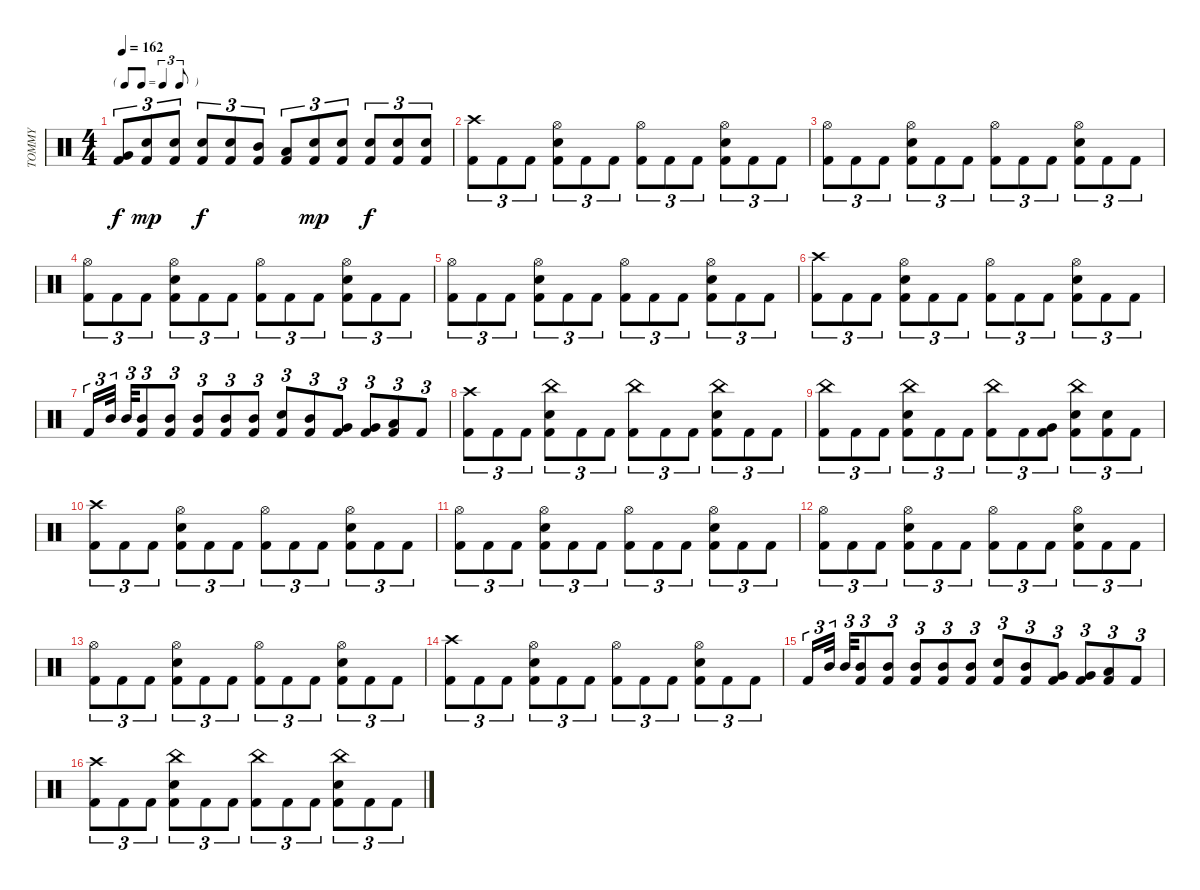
\track ("TOMMY" "TOMMY") {instrument percussion}
\staff {score}
\articulation defaults
\ts (4 4)
\tf triplet8th
\tempo 162
\clef neutral
\ks c
("Kick (hit) 2" "Very Low Tom (hit)").8{tu (3 2) dy f} ("Snare (hit) 2" "Kick (hit) 2").8{tu (3 2) dy mp} ("Snare (hit) 2" "Kick (hit) 2").8{tu (3 2)} ("Snare (hit) 2" "Kick (hit) 2").8{tu (3 2) dy f} ("Snare (hit) 2" "Kick (hit) 2").8{tu (3 2)} ("Kick (hit) 2" "Mid Tom (hit)").8{tu (3 2)} ("Kick (hit) 2" "Low Floor Tom (hit)").8{tu (3 2)} ("Snare (hit) 2" "Kick (hit) 2").8{tu (3 2) dy mp} ("Snare (hit) 2" "Kick (hit) 2").8{tu (3 2)} ("Snare (hit) 2" "Kick (hit) 2").8{tu (3 2) dy f} ("Snare (hit) 2" "Kick (hit) 2").8{tu (3 2)} ("Snare (hit) 2" "Kick (hit) 2").8{tu (3 2)} |
("Kick (hit) 2" "Crash high (hit)").8{tu (3 2)} "Kick (hit) 2".8{tu (3 2)} "Kick (hit) 2".8{tu (3 2)} ("Snare (hit) 2" "Kick (hit) 2" "Hi-Hat (open)").8{tu (3 2)} "Kick (hit) 2".8{tu (3 2)} "Kick (hit) 2".8{tu (3 2)} ("Kick (hit) 2" "Hi-Hat (open)").8{tu (3 2)} "Kick (hit) 2".8{tu (3 2)} "Kick (hit) 2".8{tu (3 2)} ("Snare (hit) 2" "Kick (hit) 2" "Hi-Hat (open)").8{tu (3 2)} "Kick (hit) 2".8{tu (3 2)} "Kick (hit) 2".8{tu (3 2)} |
("Kick (hit) 2" "Hi-Hat (open)").8{tu (3 2)} "Kick (hit) 2".8{tu (3 2)} "Kick (hit) 2".8{tu (3 2)} ("Snare (hit) 2" "Kick (hit) 2" "Hi-Hat (open)").8{tu (3 2)} "Kick (hit) 2".8{tu (3 2)} "Kick (hit) 2".8{tu (3 2)} ("Kick (hit) 2" "Hi-Hat (open)").8{tu (3 2)} "Kick (hit) 2".8{tu (3 2)} "Kick (hit) 2".8{tu (3 2)} ("Snare (hit) 2" "Kick (hit) 2" "Hi-Hat (open)").8{tu (3 2)} "Kick (hit) 2".8{tu (3 2)} "Kick (hit) 2".8{tu (3 2)} |
("Kick (hit) 2" "Hi-Hat (open)").8{tu (3 2)} "Kick (hit) 2".8{tu (3 2)} "Kick (hit) 2".8{tu (3 2)} ("Snare (hit) 2" "Kick (hit) 2" "Hi-Hat (open)").8{tu (3 2)} "Kick (hit) 2".8{tu (3 2)} "Kick (hit) 2".8{tu (3 2)} ("Kick (hit) 2" "Hi-Hat (open)").8{tu (3 2)} "Kick (hit) 2".8{tu (3 2)} "Kick (hit) 2".8{tu (3 2)} ("Snare (hit) 2" "Kick (hit) 2" "Hi-Hat (open)").8{tu (3 2)} "Kick (hit) 2".8{tu (3 2)} "Kick (hit) 2".8{tu (3 2)} |
("Kick (hit) 2" "Hi-Hat (open)").8{tu (3 2)} "Kick (hit) 2".8{tu (3 2)} "Kick (hit) 2".8{tu (3 2)} ("Snare (hit) 2" "Kick (hit) 2" "Hi-Hat (open)").8{tu (3 2)} "Kick (hit) 2".8{tu (3 2)} "Kick (hit) 2".8{tu (3 2)} ("Kick (hit) 2" "Hi-Hat (open)").8{tu (3 2)} "Kick (hit) 2".8{tu (3 2)} "Kick (hit) 2".8{tu (3 2)} ("Snare (hit) 2" "Kick (hit) 2" "Hi-Hat (open)").8{tu (3 2)} "Kick (hit) 2".8{tu (3 2)} "Kick (hit) 2".8{tu (3 2)} |
("Kick (hit) 2" "Crash high (hit)").8{tu (3 2)} "Kick (hit) 2".8{tu (3 2)} "Kick (hit) 2".8{tu (3 2)} ("Snare (hit) 2" "Kick (hit) 2" "Hi-Hat (open)").8{tu (3 2)} "Kick (hit) 2".8{tu (3 2)} "Kick (hit) 2".8{tu (3 2)} ("Kick (hit) 2" "Hi-Hat (open)").8{tu (3 2)} "Kick (hit) 2".8{tu (3 2)} "Kick (hit) 2".8{tu (3 2)} ("Snare (hit) 2" "Kick (hit) 2" "Hi-Hat (open)").8{tu (3 2)} "Kick (hit) 2".8{tu (3 2)} "Kick (hit) 2".8{tu (3 2)} |
"Kick (hit) 2".16{tu (3 2)} "Mid Tom (hit)".32{tu (3 2)} "Mid Tom (hit)".32{tu (3 2)} ("Kick (hit) 2" "Mid Tom (hit)").8{tu (3 2)} ("Kick (hit) 2" "Mid Tom (hit)").8{tu (3 2)} ("Kick (hit) 2" "Mid Tom (hit)").8{tu (3 2)} ("Kick (hit) 2" "Mid Tom (hit)").8{tu (3 2)} ("Kick (hit) 2" "Mid Tom (hit)").8{tu (3 2)} ("Snare (hit) 2" "Kick (hit) 2").8{tu (3 2)} ("Kick (hit) 2" "Mid Tom (hit)").8{tu (3 2)} ("Kick (hit) 2" "Very Low Tom (hit)").8{tu (3 2)} ("Kick (hit) 2" "Very Low Tom (hit)").8{tu (3 2)} ("Kick (hit) 2" "Low Floor Tom (hit)").8{tu (3 2)} "Kick (hit) 2".8{tu (3 2)} |
("Kick (hit) 2" "Crash high (hit)").8{tu (3 2)} "Kick (hit) 2".8{tu (3 2)} "Kick (hit) 2".8{tu (3 2)} ("Snare (hit) 2" "Kick (hit) 2" "China (hit)").8{tu (3 2)} "Kick (hit) 2".8{tu (3 2)} "Kick (hit) 2".8{tu (3 2)} ("Kick (hit) 2" "China (hit)").8{tu (3 2)} "Kick (hit) 2".8{tu (3 2)} "Kick (hit) 2".8{tu (3 2)} ("Snare (hit) 2" "Kick (hit) 2" "China (hit)").8{tu (3 2)} "Kick (hit) 2".8{tu (3 2)} "Kick (hit) 2".8{tu (3 2)} |
("Kick (hit) 2" "China (hit)").8{tu (3 2)} "Kick (hit) 2".8{tu (3 2)} "Kick (hit) 2".8{tu (3 2)} ("Snare (hit) 2" "Kick (hit) 2" "China (hit)").8{tu (3 2)} "Kick (hit) 2".8{tu (3 2)} "Kick (hit) 2".8{tu (3 2)} ("Kick (hit) 2" "China (hit)").8{tu (3 2)} "Kick (hit) 2".8{tu (3 2)} ("Kick (hit) 2" "Very Low Tom (hit)").8{tu (3 2)} ("Snare (hit) 2" "Kick (hit) 2" "China (hit)").8{tu (3 2)} ("Snare (hit) 2" "Kick (hit) 2").8{tu (3 2)} "Kick (hit) 2".8{tu (3 2)} |
("Kick (hit) 2" "Crash high (hit)").8{tu (3 2)} "Kick (hit) 2".8{tu (3 2)} "Kick (hit) 2".8{tu (3 2)} ("Snare (hit) 2" "Kick (hit) 2" "Hi-Hat (open)").8{tu (3 2)} "Kick (hit) 2".8{tu (3 2)} "Kick (hit) 2".8{tu (3 2)} ("Kick (hit) 2" "Hi-Hat (open)").8{tu (3 2)} "Kick (hit) 2".8{tu (3 2)} "Kick (hit) 2".8{tu (3 2)} ("Snare (hit) 2" "Kick (hit) 2" "Hi-Hat (open)").8{tu (3 2)} "Kick (hit) 2".8{tu (3 2)} "Kick (hit) 2".8{tu (3 2)} |
("Kick (hit) 2" "Hi-Hat (open)").8{tu (3 2)} "Kick (hit) 2".8{tu (3 2)} "Kick (hit) 2".8{tu (3 2)} ("Snare (hit) 2" "Kick (hit) 2" "Hi-Hat (open)").8{tu (3 2)} "Kick (hit) 2".8{tu (3 2)} "Kick (hit) 2".8{tu (3 2)} ("Kick (hit) 2" "Hi-Hat (open)").8{tu (3 2)} "Kick (hit) 2".8{tu (3 2)} "Kick (hit) 2".8{tu (3 2)} ("Snare (hit) 2" "Kick (hit) 2" "Hi-Hat (open)").8{tu (3 2)} "Kick (hit) 2".8{tu (3 2)} "Kick (hit) 2".8{tu (3 2)} |
("Kick (hit) 2" "Hi-Hat (open)").8{tu (3 2)} "Kick (hit) 2".8{tu (3 2)} "Kick (hit) 2".8{tu (3 2)} ("Snare (hit) 2" "Kick (hit) 2" "Hi-Hat (open)").8{tu (3 2)} "Kick (hit) 2".8{tu (3 2)} "Kick (hit) 2".8{tu (3 2)} ("Kick (hit) 2" "Hi-Hat (open)").8{tu (3 2)} "Kick (hit) 2".8{tu (3 2)} "Kick (hit) 2".8{tu (3 2)} ("Snare (hit) 2" "Kick (hit) 2" "Hi-Hat (open)").8{tu (3 2)} "Kick (hit) 2".8{tu (3 2)} "Kick (hit) 2".8{tu (3 2)} |
("Kick (hit) 2" "Hi-Hat (open)").8{tu (3 2)} "Kick (hit) 2".8{tu (3 2)} "Kick (hit) 2".8{tu (3 2)} ("Snare (hit) 2" "Kick (hit) 2" "Hi-Hat (open)").8{tu (3 2)} "Kick (hit) 2".8{tu (3 2)} "Kick (hit) 2".8{tu (3 2)} ("Kick (hit) 2" "Hi-Hat (open)").8{tu (3 2)} "Kick (hit) 2".8{tu (3 2)} "Kick (hit) 2".8{tu (3 2)} ("Snare (hit) 2" "Kick (hit) 2" "Hi-Hat (open)").8{tu (3 2)} "Kick (hit) 2".8{tu (3 2)} "Kick (hit) 2".8{tu (3 2)} |
("Kick (hit) 2" "Crash high (hit)").8{tu (3 2)} "Kick (hit) 2".8{tu (3 2)} "Kick (hit) 2".8{tu (3 2)} ("Snare (hit) 2" "Kick (hit) 2" "Hi-Hat (open)").8{tu (3 2)} "Kick (hit) 2".8{tu (3 2)} "Kick (hit) 2".8{tu (3 2)} ("Kick (hit) 2" "Hi-Hat (open)").8{tu (3 2)} "Kick (hit) 2".8{tu (3 2)} "Kick (hit) 2".8{tu (3 2)} ("Snare (hit) 2" "Kick (hit) 2" "Hi-Hat (open)").8{tu (3 2)} "Kick (hit) 2".8{tu (3 2)} "Kick (hit) 2".8{tu (3 2)} |
"Kick (hit) 2".16{tu (3 2)} "Mid Tom (hit)".32{tu (3 2)} "Mid Tom (hit)".32{tu (3 2)} ("Kick (hit) 2" "Mid Tom (hit)").8{tu (3 2)} ("Kick (hit) 2" "Mid Tom (hit)").8{tu (3 2)} ("Kick (hit) 2" "Mid Tom (hit)").8{tu (3 2)} ("Kick (hit) 2" "Mid Tom (hit)").8{tu (3 2)} ("Kick (hit) 2" "Mid Tom (hit)").8{tu (3 2)} ("Snare (hit) 2" "Kick (hit) 2").8{tu (3 2)} ("Kick (hit) 2" "Mid Tom (hit)").8{tu (3 2)} ("Kick (hit) 2" "Very Low Tom (hit)").8{tu (3 2)} ("Kick (hit) 2" "Very Low Tom (hit)").8{tu (3 2)} ("Kick (hit) 2" "Low Floor Tom (hit)").8{tu (3 2)} "Kick (hit) 2".8{tu (3 2)} |
("Kick (hit) 2" "Crash high (hit)").8{tu (3 2)} "Kick (hit) 2".8{tu (3 2)} "Kick (hit) 2".8{tu (3 2)} ("Snare (hit) 2" "Kick (hit) 2" "China (hit)").8{tu (3 2)} "Kick (hit) 2".8{tu (3 2)} "Kick (hit) 2".8{tu (3 2)} ("Kick (hit) 2" "China (hit)").8{tu (3 2)} "Kick (hit) 2".8{tu (3 2)} "Kick (hit) 2".8{tu (3 2)} ("Snare (hit) 2" "Kick (hit) 2" "China (hit)").8{tu (3 2)} "Kick (hit) 2".8{tu (3 2)} "Kick (hit) 2".8{tu (3 2)}
